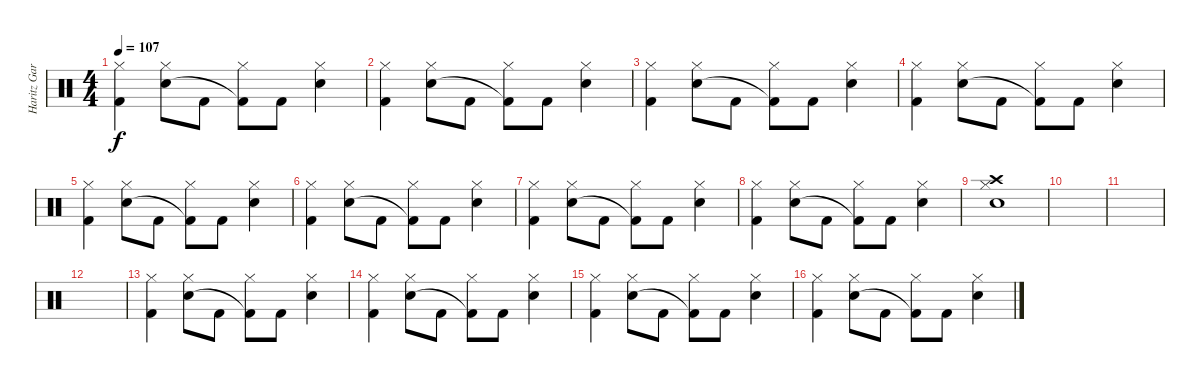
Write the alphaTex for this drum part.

\track ("Haritz Gardo" "Haritz Gar") {instrument percussion}
\staff {score}
\articulation defaults
\ts (4 4)
\tempo 107
\clef neutral
\ks c
("Hi-Hat (closed)" "Kick (hit) 2").4{dy f} ("Hi-Hat (closed)" "Electric Snare (hit)").8 "Kick (hit) 2".8 ("Hi-Hat (closed)" "Kick (hit) 2"{t}).8 "Kick (hit) 2".8 ("Hi-Hat (closed)" "Electric Snare (hit)").4 |
("Hi-Hat (closed)" "Kick (hit) 2").4 ("Hi-Hat (closed)" "Electric Snare (hit)").8 "Kick (hit) 2".8 ("Hi-Hat (closed)" "Kick (hit) 2"{t}).8 "Kick (hit) 2".8 ("Hi-Hat (closed)" "Electric Snare (hit)").4 |
("Hi-Hat (closed)" "Kick (hit) 2").4 ("Hi-Hat (closed)" "Electric Snare (hit)").8 "Kick (hit) 2".8 ("Hi-Hat (closed)" "Kick (hit) 2"{t}).8 "Kick (hit) 2".8 ("Hi-Hat (closed)" "Electric Snare (hit)").4 |
("Hi-Hat (closed)" "Kick (hit) 2").4 ("Hi-Hat (closed)" "Electric Snare (hit)").8 "Kick (hit) 2".8 ("Hi-Hat (closed)" "Kick (hit) 2"{t}).8 "Kick (hit) 2".8 ("Hi-Hat (closed)" "Electric Snare (hit)").4 |
("Hi-Hat (closed)" "Kick (hit) 2").4 ("Hi-Hat (closed)" "Electric Snare (hit)").8 "Kick (hit) 2".8 ("Hi-Hat (closed)" "Kick (hit) 2"{t}).8 "Kick (hit) 2".8 ("Hi-Hat (closed)" "Electric Snare (hit)").4 |
("Hi-Hat (closed)" "Kick (hit) 2").4 ("Hi-Hat (closed)" "Electric Snare (hit)").8 "Kick (hit) 2".8 ("Hi-Hat (closed)" "Kick (hit) 2"{t}).8 "Kick (hit) 2".8 ("Hi-Hat (closed)" "Electric Snare (hit)").4 |
("Hi-Hat (closed)" "Kick (hit) 2").4 ("Hi-Hat (closed)" "Electric Snare (hit)").8 "Kick (hit) 2".8 ("Hi-Hat (closed)" "Kick (hit) 2"{t}).8 "Kick (hit) 2".8 ("Hi-Hat (closed)" "Electric Snare (hit)").4 |
("Hi-Hat (closed)" "Kick (hit) 2").4 ("Hi-Hat (closed)" "Electric Snare (hit)").8 "Kick (hit) 2".8 ("Hi-Hat (closed)" "Kick (hit) 2"{t}).8 "Kick (hit) 2".8 ("Hi-Hat (closed)" "Electric Snare (hit)").4 |
("Crash high (hit)" "Hi-Hat (closed)" "Electric Snare (hit)").1 |
|
|
|
("Hi-Hat (closed)" "Kick (hit) 2").4 ("Hi-Hat (closed)" "Electric Snare (hit)").8 "Kick (hit) 2".8 ("Hi-Hat (closed)" "Kick (hit) 2"{t}).8 "Kick (hit) 2".8 ("Hi-Hat (closed)" "Electric Snare (hit)").4 |
("Hi-Hat (closed)" "Kick (hit) 2").4 ("Hi-Hat (closed)" "Electric Snare (hit)").8 "Kick (hit) 2".8 ("Hi-Hat (closed)" "Kick (hit) 2"{t}).8 "Kick (hit) 2".8 ("Hi-Hat (closed)" "Electric Snare (hit)").4 |
("Hi-Hat (closed)" "Kick (hit) 2").4 ("Hi-Hat (closed)" "Electric Snare (hit)").8 "Kick (hit) 2".8 ("Hi-Hat (closed)" "Kick (hit) 2"{t}).8 "Kick (hit) 2".8 ("Hi-Hat (closed)" "Electric Snare (hit)").4 |
("Hi-Hat (closed)" "Kick (hit) 2").4 ("Hi-Hat (closed)" "Electric Snare (hit)").8 "Kick (hit) 2".8 ("Hi-Hat (closed)" "Kick (hit) 2"{t}).8 "Kick (hit) 2".8 ("Hi-Hat (closed)" "Electric Snare (hit)").4
